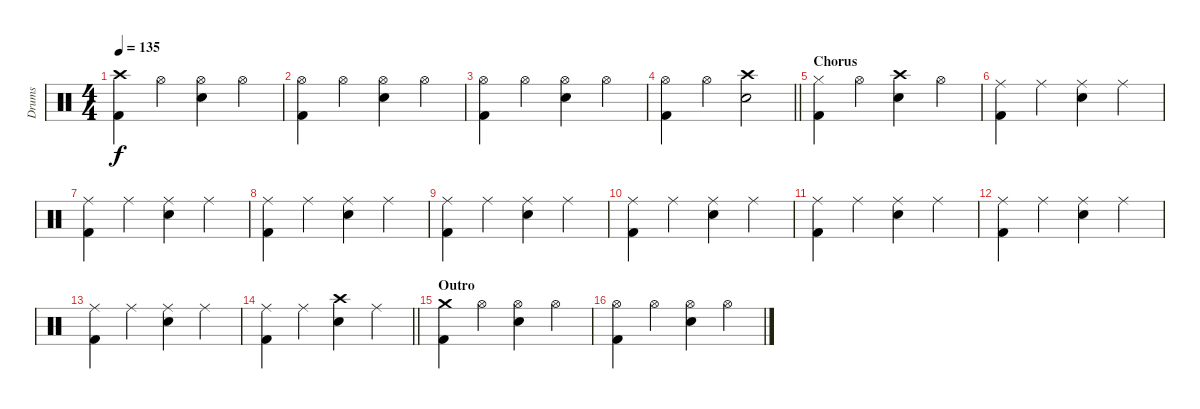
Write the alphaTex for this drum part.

\track ("Drums" "Drums") {instrument percussion}
\staff {score}
\articulation defaults
\ts (4 4)
\tempo 135
\clef neutral
\ks c
("Crash high (hit)" "Kick (hit) 2").4{dy f} "Hi-Hat (open)".4 ("Hi-Hat (open)" "Electric Snare (hit)").4 "Hi-Hat (open)".4 |
("Hi-Hat (open)" "Kick (hit) 2").4 "Hi-Hat (open)".4 ("Hi-Hat (open)" "Electric Snare (hit)").4 "Hi-Hat (open)".4 |
("Hi-Hat (open)" "Kick (hit) 2").4 "Hi-Hat (open)".4 ("Hi-Hat (open)" "Electric Snare (hit)").4 "Hi-Hat (open)".4 |
\barLineRight lightlight
("Hi-Hat (open)" "Kick (hit) 2").4 "Hi-Hat (open)".4 ("Crash high (hit)" "Electric Snare (hit)").2 |
\section ("" "Chorus")
("Hi-Hat (closed)" "Kick (hit) 2").4 "Hi-Hat (open)".4 ("Crash high (hit)" "Electric Snare (hit)").4 "Hi-Hat (open)".4 |
("Ride (middle)" "Kick (hit) 2").4 "Ride (middle)".4 ("Ride (middle)" "Electric Snare (hit)").4 "Ride (middle)".4 |
("Ride (middle)" "Kick (hit) 2").4 "Ride (middle)".4 ("Ride (middle)" "Electric Snare (hit)").4 "Ride (middle)".4 |
("Ride (middle)" "Kick (hit) 2").4 "Ride (middle)".4 ("Ride (middle)" "Electric Snare (hit)").4 "Ride (middle)".4 |
("Ride (middle)" "Kick (hit) 2").4 "Ride (middle)".4 ("Ride (middle)" "Electric Snare (hit)").4 "Ride (middle)".4 |
("Ride (middle)" "Kick (hit) 2").4 "Ride (middle)".4 ("Ride (middle)" "Electric Snare (hit)").4 "Ride (middle)".4 |
("Ride (middle)" "Kick (hit) 2").4 "Ride (middle)".4 ("Ride (middle)" "Electric Snare (hit)").4 "Ride (middle)".4 |
("Ride (middle)" "Kick (hit) 2").4 "Ride (middle)".4 ("Ride (middle)" "Electric Snare (hit)").4 "Ride (middle)".4 |
("Ride (middle)" "Kick (hit) 2").4 "Ride (middle)".4 ("Ride (middle)" "Electric Snare (hit)").4 "Ride (middle)".4 |
\barLineRight lightlight
("Ride (middle)" "Kick (hit) 2").4 "Ride (middle)".4 ("Crash high (hit)" "Electric Snare (hit)").4 "Ride (middle)".4 |
\section ("" "Outro")
("Crash medium (hit)" "Kick (hit) 2").4 "Hi-Hat (open)".4 ("Hi-Hat (open)" "Electric Snare (hit)").4 "Hi-Hat (open)".4 |
("Hi-Hat (open)" "Kick (hit) 2").4 "Hi-Hat (open)".4 ("Hi-Hat (open)" "Electric Snare (hit)").4 "Hi-Hat (open)".4
